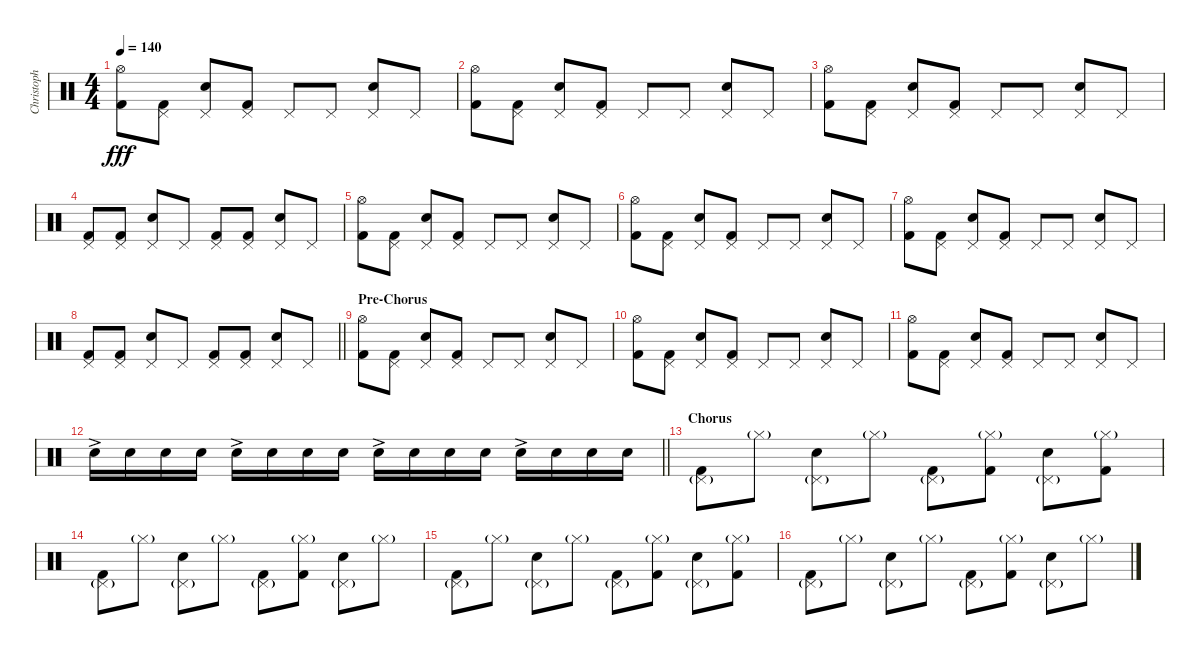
\track ("Christoph" "Christoph") {instrument percussion}
\staff {score}
\articulation defaults
\ts (4 4)
\tempo 140
\clef neutral
\ks c
("Hi-Hat (open)" "Kick (hit) 2").8{dy fff} ("Pedal Hi-Hat (hit)" "Kick (hit) 2").8 ("Pedal Hi-Hat (hit)" "Electric Snare (hit)").8 ("Pedal Hi-Hat (hit)" "Kick (hit) 2").8 "Pedal Hi-Hat (hit)".8 "Pedal Hi-Hat (hit)".8 ("Pedal Hi-Hat (hit)" "Electric Snare (hit)").8 "Pedal Hi-Hat (hit)".8 |
("Hi-Hat (open)" "Kick (hit) 2").8 ("Pedal Hi-Hat (hit)" "Kick (hit) 2").8 ("Pedal Hi-Hat (hit)" "Electric Snare (hit)").8 ("Pedal Hi-Hat (hit)" "Kick (hit) 2").8 "Pedal Hi-Hat (hit)".8 "Pedal Hi-Hat (hit)".8 ("Pedal Hi-Hat (hit)" "Electric Snare (hit)").8 "Pedal Hi-Hat (hit)".8 |
("Hi-Hat (open)" "Kick (hit) 2").8 ("Pedal Hi-Hat (hit)" "Kick (hit) 2").8 ("Pedal Hi-Hat (hit)" "Electric Snare (hit)").8 ("Pedal Hi-Hat (hit)" "Kick (hit) 2").8 "Pedal Hi-Hat (hit)".8 "Pedal Hi-Hat (hit)".8 ("Pedal Hi-Hat (hit)" "Electric Snare (hit)").8 "Pedal Hi-Hat (hit)".8 |
("Pedal Hi-Hat (hit)" "Kick (hit) 2").8 ("Pedal Hi-Hat (hit)" "Kick (hit) 2").8 ("Pedal Hi-Hat (hit)" "Electric Snare (hit)").8 "Pedal Hi-Hat (hit)".8 ("Pedal Hi-Hat (hit)" "Kick (hit) 2").8 ("Pedal Hi-Hat (hit)" "Kick (hit) 2").8 ("Pedal Hi-Hat (hit)" "Electric Snare (hit)").8 "Pedal Hi-Hat (hit)".8 |
("Hi-Hat (open)" "Kick (hit) 2").8 ("Pedal Hi-Hat (hit)" "Kick (hit) 2").8 ("Pedal Hi-Hat (hit)" "Electric Snare (hit)").8 ("Pedal Hi-Hat (hit)" "Kick (hit) 2").8 "Pedal Hi-Hat (hit)".8 "Pedal Hi-Hat (hit)".8 ("Pedal Hi-Hat (hit)" "Electric Snare (hit)").8 "Pedal Hi-Hat (hit)".8 |
("Hi-Hat (open)" "Kick (hit) 2").8 ("Pedal Hi-Hat (hit)" "Kick (hit) 2").8 ("Pedal Hi-Hat (hit)" "Electric Snare (hit)").8 ("Pedal Hi-Hat (hit)" "Kick (hit) 2").8 "Pedal Hi-Hat (hit)".8 "Pedal Hi-Hat (hit)".8 ("Pedal Hi-Hat (hit)" "Electric Snare (hit)").8 "Pedal Hi-Hat (hit)".8 |
("Hi-Hat (open)" "Kick (hit) 2").8 ("Pedal Hi-Hat (hit)" "Kick (hit) 2").8 ("Pedal Hi-Hat (hit)" "Electric Snare (hit)").8 ("Pedal Hi-Hat (hit)" "Kick (hit) 2").8 "Pedal Hi-Hat (hit)".8 "Pedal Hi-Hat (hit)".8 ("Pedal Hi-Hat (hit)" "Electric Snare (hit)").8 "Pedal Hi-Hat (hit)".8 |
\barLineRight lightlight
("Pedal Hi-Hat (hit)" "Kick (hit) 2").8 ("Pedal Hi-Hat (hit)" "Kick (hit) 2").8 ("Pedal Hi-Hat (hit)" "Electric Snare (hit)").8 "Pedal Hi-Hat (hit)".8 ("Pedal Hi-Hat (hit)" "Kick (hit) 2").8 ("Pedal Hi-Hat (hit)" "Kick (hit) 2").8 ("Pedal Hi-Hat (hit)" "Electric Snare (hit)").8 "Pedal Hi-Hat (hit)".8 |
\section ("" "Pre-Chorus")
("Hi-Hat (open)" "Kick (hit) 2").8 ("Pedal Hi-Hat (hit)" "Kick (hit) 2").8 ("Pedal Hi-Hat (hit)" "Electric Snare (hit)").8 ("Pedal Hi-Hat (hit)" "Kick (hit) 2").8 "Pedal Hi-Hat (hit)".8 "Pedal Hi-Hat (hit)".8 ("Pedal Hi-Hat (hit)" "Electric Snare (hit)").8 "Pedal Hi-Hat (hit)".8 |
("Hi-Hat (open)" "Kick (hit) 2").8 ("Pedal Hi-Hat (hit)" "Kick (hit) 2").8 ("Pedal Hi-Hat (hit)" "Electric Snare (hit)").8 ("Pedal Hi-Hat (hit)" "Kick (hit) 2").8 "Pedal Hi-Hat (hit)".8 "Pedal Hi-Hat (hit)".8 ("Pedal Hi-Hat (hit)" "Electric Snare (hit)").8 "Pedal Hi-Hat (hit)".8 |
("Hi-Hat (open)" "Kick (hit) 2").8 ("Pedal Hi-Hat (hit)" "Kick (hit) 2").8 ("Pedal Hi-Hat (hit)" "Electric Snare (hit)").8 ("Pedal Hi-Hat (hit)" "Kick (hit) 2").8 "Pedal Hi-Hat (hit)".8 "Pedal Hi-Hat (hit)".8 ("Pedal Hi-Hat (hit)" "Electric Snare (hit)").8 "Pedal Hi-Hat (hit)".8 |
\barLineRight lightlight "Electric Snare (hit)"{ac}.16 "Electric Snare (hit)".16 "Electric Snare (hit)".16 "Electric Snare (hit)".16 "Electric Snare (hit)"{ac}.16 "Electric Snare (hit)".16 "Electric Snare (hit)".16 "Electric Snare (hit)".16 "Electric Snare (hit)"{ac}.16 "Electric Snare (hit)".16 "Electric Snare (hit)".16 "Electric Snare (hit)".16 "Electric Snare (hit)"{ac}.16 "Electric Snare (hit)".16 "Electric Snare (hit)".16 "Electric Snare (hit)".16
|
\section ("" "Chorus")
("Pedal Hi-Hat (hit)"{g} "Kick (hit) 2").8 "Hi-Hat (closed)"{g}.8 ("Pedal Hi-Hat (hit)"{g} "Electric Snare (hit)").8 "Hi-Hat (closed)"{g}.8 ("Pedal Hi-Hat (hit)"{g} "Kick (hit) 2").8 ("Hi-Hat (closed)"{g} "Kick (hit) 2").8 ("Pedal Hi-Hat (hit)"{g} "Electric Snare (hit)").8 ("Hi-Hat (closed)"{g} "Kick (hit) 2").8 |
("Pedal Hi-Hat (hit)"{g} "Kick (hit) 2").8 "Hi-Hat (closed)"{g}.8 ("Pedal Hi-Hat (hit)"{g} "Electric Snare (hit)").8 "Hi-Hat (closed)"{g}.8 ("Pedal Hi-Hat (hit)"{g} "Kick (hit) 2").8 ("Hi-Hat (closed)"{g} "Kick (hit) 2").8 ("Pedal Hi-Hat (hit)"{g} "Electric Snare (hit)").8 "Hi-Hat (closed)"{g}.8 |
("Pedal Hi-Hat (hit)"{g} "Kick (hit) 2").8 "Hi-Hat (closed)"{g}.8 ("Pedal Hi-Hat (hit)"{g} "Electric Snare (hit)").8 "Hi-Hat (closed)"{g}.8 ("Pedal Hi-Hat (hit)"{g} "Kick (hit) 2").8 ("Hi-Hat (closed)"{g} "Kick (hit) 2").8 ("Pedal Hi-Hat (hit)"{g} "Electric Snare (hit)").8 ("Hi-Hat (closed)"{g} "Kick (hit) 2").8 |
("Pedal Hi-Hat (hit)"{g} "Kick (hit) 2").8 "Hi-Hat (closed)"{g}.8 ("Pedal Hi-Hat (hit)"{g} "Electric Snare (hit)").8 "Hi-Hat (closed)"{g}.8 ("Pedal Hi-Hat (hit)"{g} "Kick (hit) 2").8 ("Hi-Hat (closed)"{g} "Kick (hit) 2").8 ("Pedal Hi-Hat (hit)"{g} "Electric Snare (hit)").8 "Hi-Hat (closed)"{g}.8
